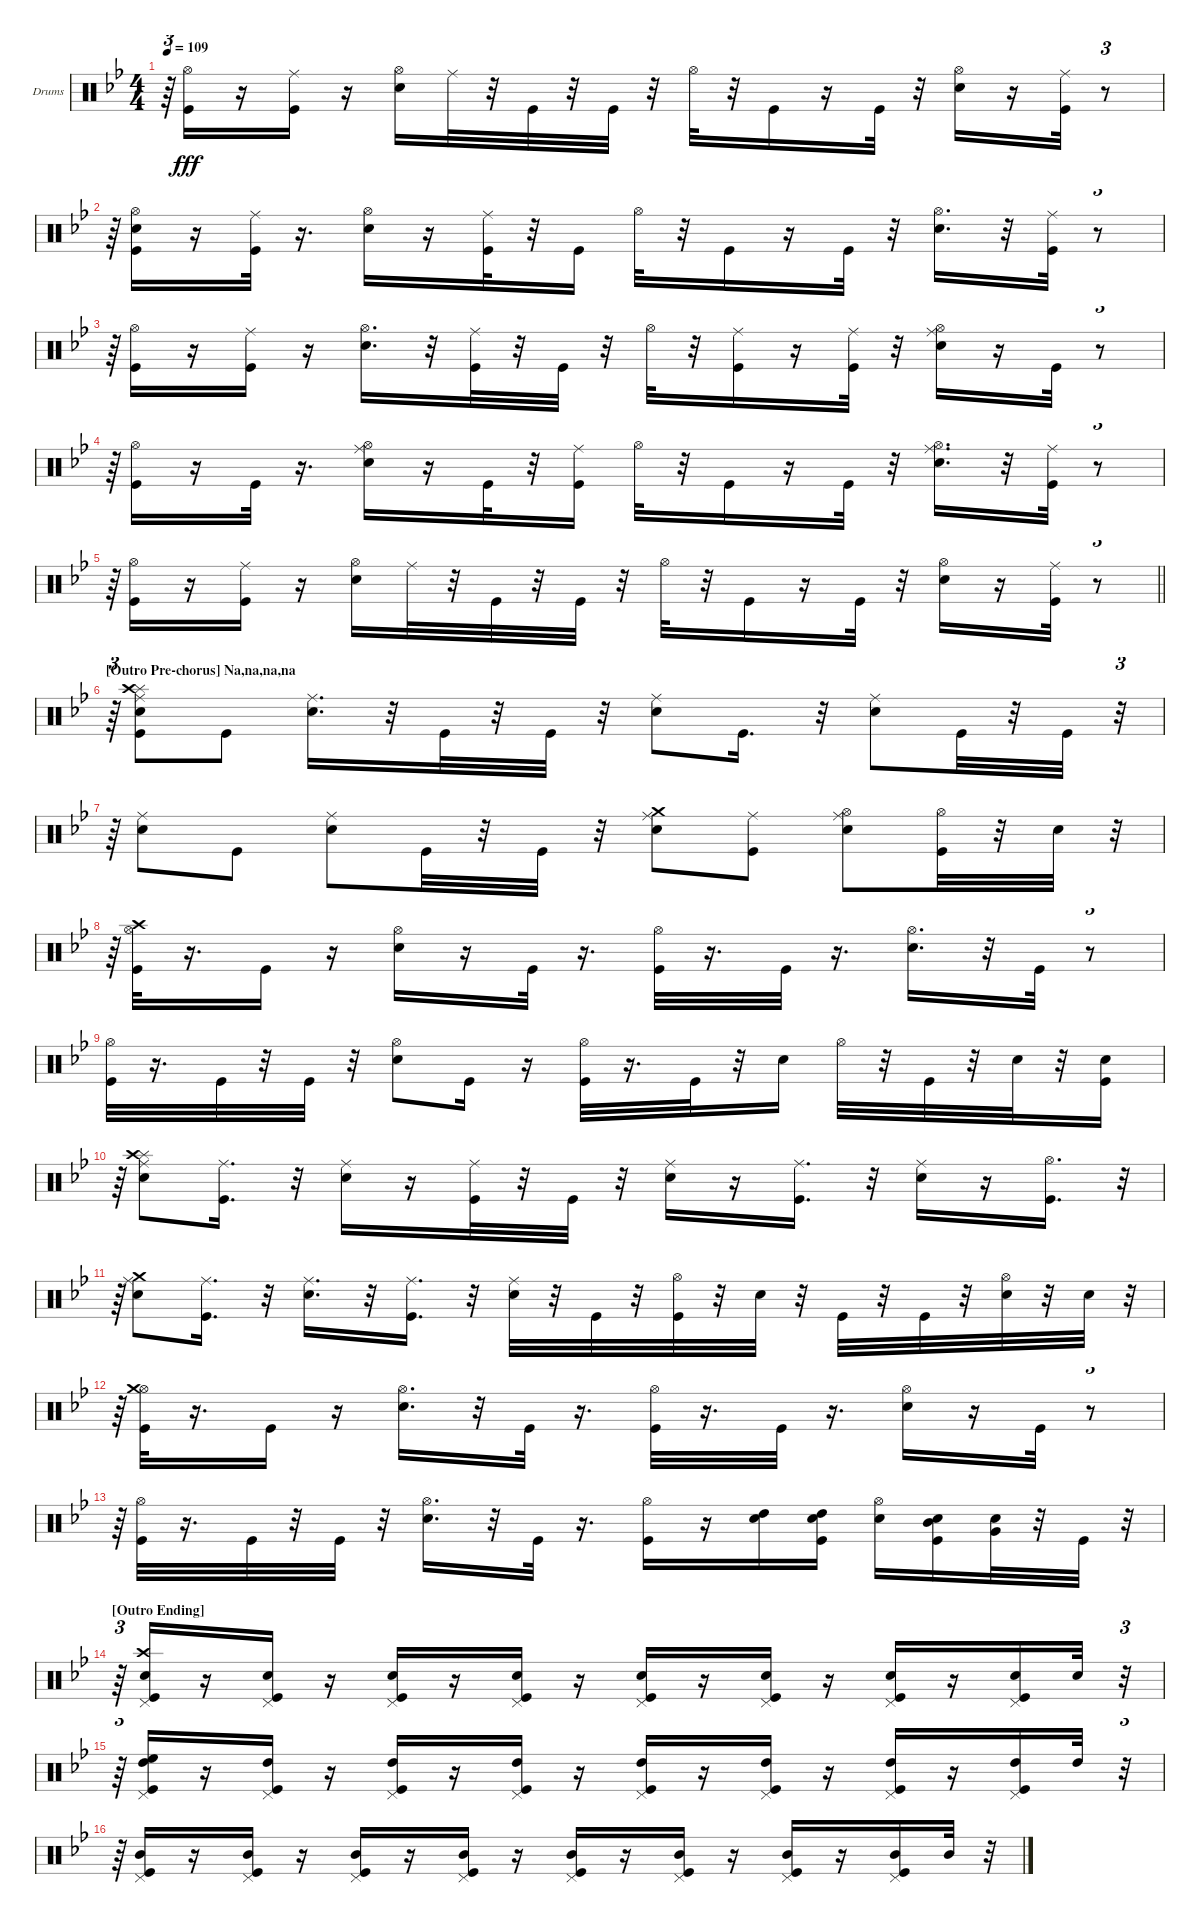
\bracketExtendMode groupsimilarinstruments
\firstSystemTrackNameOrientation horizontal
\otherSystemsTrackNameOrientation horizontal
\track ("Drumkit" "Drums") {instrument percussion}
\staff {score}
\articulation defaults
\ts (4 4)
\tempo 109
\clef neutral
\ks gminor
r.64{tu (3 2) dy fff} ("Kick (hit)" "Hi-Hat (open)").16 r.16 ("Kick (hit)" "Ride (middle)").16 r.16 ("Snare (hit) 2" "Hi-Hat (open)").16 "Ride (middle)".32 r.32 "Kick (hit)".32 r.32 "Kick (hit)".32 r.32 "Hi-Hat (open)".32 r.32 "Kick (hit)".16 r.16 "Kick (hit)".32 r.32 ("Snare (hit) 2" "Hi-Hat (open)").16 r.16 ("Kick (hit)" "Ride (middle)").32 r.8{tu (3 2)} |
r.64{tu (3 2)} ("Kick (hit)" "Snare (hit) 2" "Hi-Hat (open)").16 r.16 ("Kick (hit)" "Ride (middle)").32 r.16{d} ("Snare (hit) 2" "Hi-Hat (open)").16 r.16 ("Kick (hit)" "Ride (middle)").32 r.32 "Kick (hit)".16 "Hi-Hat (open)".32 r.32 "Kick (hit)".16 r.16 "Kick (hit)".32 r.32 ("Snare (hit) 2" "Hi-Hat (open)").16{d} r.32 ("Kick (hit)" "Ride (middle)").32 r.8{tu (3 2)} |
r.64{tu (3 2)} ("Kick (hit)" "Hi-Hat (open)").16 r.16 ("Kick (hit)" "Ride (middle)").16 r.16 ("Snare (hit) 2" "Hi-Hat (open)").16{d} r.32 ("Kick (hit)" "Ride (middle)").32 r.32 "Kick (hit)".32 r.32 "Hi-Hat (open)".32 r.32 ("Kick (hit)" "Ride (middle)").16 r.16 ("Kick (hit)" "Ride (middle)").32 r.32 ("Snare (hit) 2" "Hi-Hat (open)" "Ride (middle)").16 r.16 "Kick (hit)".32 r.8{tu (3 2)} |
r.64{tu (3 2)} ("Kick (hit)" "Hi-Hat (open)").16 r.16 "Kick (hit)".32 r.16{d} ("Snare (hit) 2" "Hi-Hat (open)" "Ride (middle)").16 r.16 "Kick (hit)".32 r.32 ("Kick (hit)" "Ride (middle)").16 "Hi-Hat (open)".32 r.32 "Kick (hit)".16 r.16 "Kick (hit)".32 r.32 ("Snare (hit) 2" "Hi-Hat (open)" "Ride (middle)").16{d} r.32 ("Kick (hit)" "Ride (middle)").32 r.8{tu (3 2)} |
\barLineRight lightlight
r.64{tu (3 2)} ("Kick (hit)" "Hi-Hat (open)").16 r.16 ("Kick (hit)" "Ride (middle)").16 r.16 ("Snare (hit) 2" "Hi-Hat (open)").16 "Ride (middle)".32 r.32 "Kick (hit)".32 r.32 "Kick (hit)".32 r.32 "Hi-Hat (open)".32 r.32 "Kick (hit)".16 r.16 "Kick (hit)".32 r.32 ("Snare (hit) 2" "Hi-Hat (open)").16 r.16 ("Kick (hit)" "Ride (middle)").32 r.8{tu (3 2)} |
\section ("" "[Outro Pre-chorus] Na,na,na,na")
r.64{tu (3 2)} ("Kick (hit)" "Snare (hit) 2" "Ride (middle)" "Splash (hit)" "Crash high (hit)").8 "Kick (hit)".8 ("Snare (hit) 2" "Ride (middle)").16{d} r.32 "Kick (hit)".32 r.32 "Kick (hit)".32 r.32 ("Snare (hit) 2" "Ride (middle)").8 "Kick (hit)".16{d} r.32 ("Snare (hit) 2" "Ride (middle)").8 "Kick (hit)".32 r.32 "Kick (hit)".32 r.32{tu (3 2)} |
r.64{tu (3 2)} ("Snare (hit) 2" "Ride (middle)").8 "Kick (hit)".8 ("Snare (hit) 2" "Ride (middle)").8 "Kick (hit)".32 r.32 "Kick (hit)".32 r.32 ("Snare (hit) 2" "Crash medium (hit)" "Ride (middle)").8 ("Kick (hit)" "Ride (middle)").8 ("Snare (hit) 2" "Hi-Hat (open)" "Ride (middle)").8 ("Kick (hit)" "Hi-Hat (open)").32 r.32 "Snare (hit) 2".32 r.32{tu (3 2)} |
r.64{tu (3 2)} ("Kick (hit)" "Hi-Hat (open)" "Crash high (hit)").32 r.16{d} "Kick (hit)".16 r.16 ("Snare (hit) 2" "Hi-Hat (open)").16 r.16 "Kick (hit)".32 r.16{d} ("Kick (hit)" "Hi-Hat (open)").32 r.16{d} "Kick (hit)".32 r.16{d} ("Snare (hit) 2" "Hi-Hat (open)").16{d} r.32 "Kick (hit)".32 r.8{tu (3 2)} |
("Kick (hit)" "Hi-Hat (open)").32 r.16{d} "Kick (hit)".32 r.32 "Kick (hit)".32 r.32 ("Snare (hit) 2" "Hi-Hat (open)").8 "Kick (hit)".16 r.16 ("Kick (hit)" "Hi-Hat (open)").32 r.16{d} "Kick (hit)".32 r.32 "Snare (hit) 2".16 "Hi-Hat (open)".32 r.32 "Kick (hit)".32 r.32 "Snare (hit) 2".32 r.32 ("Kick (hit)" "Snare (hit) 2").16 |
r.64{tu (3 2)} ("Snare (hit) 2" "Ride (middle)" "Splash (hit)" "Crash high (hit)").8 ("Kick (hit)" "Ride (middle)").16{d} r.32 ("Snare (hit) 2" "Ride (middle)").16 r.16 ("Kick (hit)" "Ride (middle)").32 r.32 "Kick (hit)".32 r.32 ("Snare (hit) 2" "Ride (middle)").16 r.16 ("Kick (hit)" "Ride (middle)").16{d} r.32 ("Snare (hit) 2" "Ride (middle)").16 r.16 ("Kick (hit)" "Hi-Hat (open)").16{d} r.32{tu (3 2)} |
r.64{tu (3 2)} ("Snare (hit) 2" "Crash medium (hit)" "Ride (middle)").8 ("Kick (hit)" "Ride (middle)").16{d} r.32 ("Snare (hit) 2" "Ride (middle)").16{d} r.32 ("Kick (hit)" "Ride (middle)").16{d} r.32 ("Snare (hit) 2" "Ride (middle)").32 r.32 "Kick (hit)".32 r.32 ("Kick (hit)" "Hi-Hat (open)").32 r.32 "Snare (hit) 2".32 r.32 "Kick (hit)".32 r.32 "Kick (hit)".32 r.32 ("Snare (hit) 2" "Hi-Hat (open)").32 r.32 "Snare (hit) 2".32 r.32{tu (3 2)} |
r.64{tu (3 2)} ("Kick (hit)" "Hi-Hat (open)" "Crash medium (hit)").32 r.16{d} "Kick (hit)".16 r.16 ("Snare (hit) 2" "Hi-Hat (open)").16{d} r.32 "Kick (hit)".32 r.16{d} ("Kick (hit)" "Hi-Hat (open)").32 r.16{d} "Kick (hit)".32 r.16{d} ("Snare (hit) 2" "Hi-Hat (open)").16 r.16 "Kick (hit)".32 r.8{tu (3 2)} |
r.64{tu (3 2)} ("Kick (hit)" "Hi-Hat (open)").32 r.16{d} "Kick (hit)".32 r.32 "Kick (hit)".32 r.32 ("Snare (hit) 2" "Hi-Hat (open)").16{d} r.32 "Kick (hit)".32 r.16{d} ("Kick (hit)" "Hi-Hat (open)").16 r.16 ("Snare (hit) 2" "High Tom (hit)").16 ("Kick (hit)" "Snare (hit) 2" "High Tom (hit)").16 ("Snare (hit) 2" "Hi-Hat (open)").16 ("Kick (hit)" "Snare (hit) 2" "Mid Tom (hit)").16 ("Snare (hit) 2" "Very Low Tom (hit)").32 r.32 "Kick (hit)".32 r.32{tu (3 2)} |
\section ("" "[Outro Ending]   ")
r.64{tu (3 2)} ("Kick (hit)" "Snare (hit) 2" "Pedal Hi-Hat (hit)" "Crash high (hit)").16 r.16 ("Kick (hit)" "Snare (hit) 2" "Pedal Hi-Hat (hit)").16 r.16 ("Kick (hit)" "Snare (hit) 2" "Pedal Hi-Hat (hit)").16 r.16 ("Kick (hit)" "Snare (hit) 2" "Pedal Hi-Hat (hit)").16 r.16 ("Kick (hit)" "Snare (hit) 2" "Pedal Hi-Hat (hit)").16 r.16 ("Kick (hit)" "Snare (hit) 2" "Pedal Hi-Hat (hit)").16 r.16 ("Kick (hit)" "Snare (hit) 2" "Pedal Hi-Hat (hit)").16 r.16 ("Kick (hit)" "Snare (hit) 2" "Pedal Hi-Hat (hit)").16 "Snare (hit) 2".32 r.32{tu (3 2)} |
r.64{tu (3 2)} ("Kick (hit)" "Pedal Hi-Hat (hit)" "High Tom (hit)" "High Floor Tom (hit)").16 r.16 ("Kick (hit)" "Pedal Hi-Hat (hit)" "High Tom (hit)").16 r.16 ("Kick (hit)" "Pedal Hi-Hat (hit)" "High Tom (hit)").16 r.16 ("Kick (hit)" "Pedal Hi-Hat (hit)" "High Tom (hit)").16 r.16 ("Kick (hit)" "Pedal Hi-Hat (hit)" "High Tom (hit)").16 r.16 ("Kick (hit)" "Pedal Hi-Hat (hit)" "High Tom (hit)").16 r.16 ("Kick (hit)" "Pedal Hi-Hat (hit)" "High Tom (hit)").16 r.16 ("Kick (hit)" "Pedal Hi-Hat (hit)" "High Tom (hit)").16 "High Tom (hit)".32 r.32{tu (3 2)} |
r.64{tu (3 2)} ("Kick (hit)" "Pedal Hi-Hat (hit)" "Mid Tom (hit)").16 r.16 ("Kick (hit)" "Pedal Hi-Hat (hit)" "Mid Tom (hit)").16 r.16 ("Kick (hit)" "Pedal Hi-Hat (hit)" "Mid Tom (hit)").16 r.16 ("Kick (hit)" "Pedal Hi-Hat (hit)" "Mid Tom (hit)").16 r.16 ("Kick (hit)" "Pedal Hi-Hat (hit)" "Mid Tom (hit)").16 r.16 ("Kick (hit)" "Pedal Hi-Hat (hit)" "Mid Tom (hit)").16 r.16 ("Kick (hit)" "Pedal Hi-Hat (hit)" "Mid Tom (hit)").16 r.16 ("Kick (hit)" "Pedal Hi-Hat (hit)" "Mid Tom (hit)").16 "Mid Tom (hit)".32 r.32{tu (3 2)}
